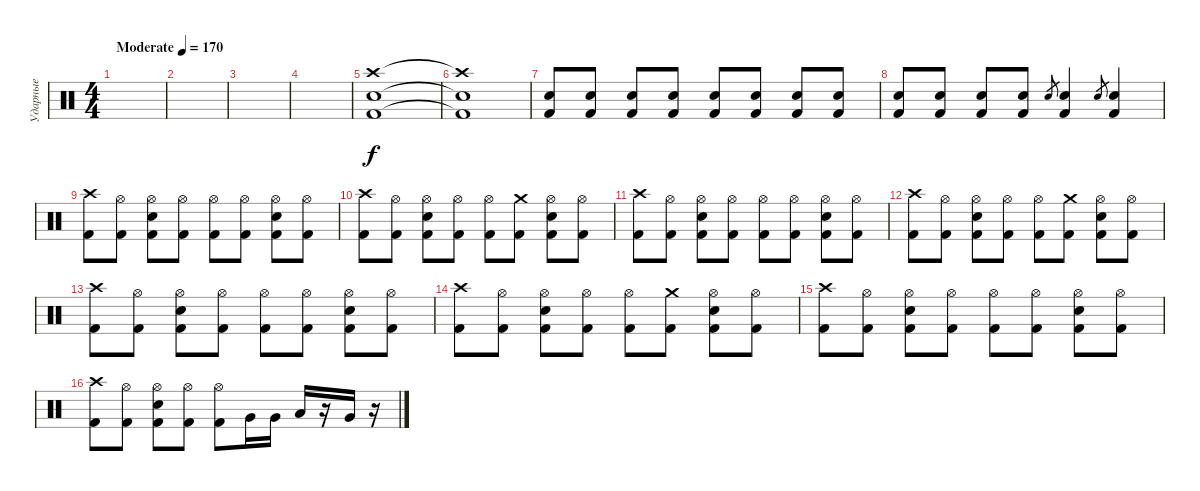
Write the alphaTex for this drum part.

\track ("Ударные" "Ударные") {instrument percussion}
\staff {score}
\articulation defaults
\ts (4 4)
\tempo (170 "Moderate")
\clef neutral
\ks c
|
|
|
|
("Crash high (hit)" "Kick (hit) 2" "Snare (hit) 2").1 |
("Crash high (hit)"{t} "Kick (hit) 2"{t} "Snare (hit) 2"{t}).1{volume 0} |
("Snare (hit) 2" "Kick (hit) 2").8{volume 16} ("Snare (hit) 2" "Kick (hit) 2").8 ("Snare (hit) 2" "Kick (hit) 2").8 ("Snare (hit) 2" "Kick (hit) 2").8 ("Snare (hit) 2" "Kick (hit) 2").8 ("Snare (hit) 2" "Kick (hit) 2").8 ("Snare (hit) 2" "Kick (hit) 2").8 ("Snare (hit) 2" "Kick (hit) 2").8 |
("Snare (hit) 2" "Kick (hit) 2").8 ("Snare (hit) 2" "Kick (hit) 2").8 ("Snare (hit) 2" "Kick (hit) 2").8 ("Snare (hit) 2" "Kick (hit) 2").8 "Snare (hit) 2".8{gr} ("Snare (hit) 2" "Kick (hit) 2").4 "Snare (hit) 2".8{gr} ("Snare (hit) 2" "Kick (hit) 2").4 |
("Crash high (hit)" "Kick (hit) 2").8 ("Hi-Hat (open)" "Kick (hit) 2").8 ("Hi-Hat (open)" "Snare (hit) 2" "Kick (hit) 2").8 ("Hi-Hat (open)" "Kick (hit) 2").8 ("Hi-Hat (open)" "Kick (hit) 2").8 ("Hi-Hat (open)" "Kick (hit) 2").8 ("Hi-Hat (open)" "Snare (hit) 2" "Kick (hit) 2").8 ("Hi-Hat (open)" "Kick (hit) 2").8 |
("Crash high (hit)" "Kick (hit) 2").8 ("Hi-Hat (open)" "Kick (hit) 2").8 ("Hi-Hat (open)" "Snare (hit) 2" "Kick (hit) 2").8 ("Hi-Hat (open)" "Kick (hit) 2").8 ("Hi-Hat (open)" "Kick (hit) 2").8 ("Crash medium (hit)" "Kick (hit) 2").8 ("Hi-Hat (open)" "Snare (hit) 2" "Kick (hit) 2").8 ("Hi-Hat (open)" "Kick (hit) 2").8 |
("Crash high (hit)" "Kick (hit) 2").8 ("Hi-Hat (open)" "Kick (hit) 2").8 ("Hi-Hat (open)" "Snare (hit) 2" "Kick (hit) 2").8 ("Hi-Hat (open)" "Kick (hit) 2").8 ("Hi-Hat (open)" "Kick (hit) 2").8 ("Hi-Hat (open)" "Kick (hit) 2").8 ("Hi-Hat (open)" "Snare (hit) 2" "Kick (hit) 2").8 ("Hi-Hat (open)" "Kick (hit) 2").8 |
("Crash high (hit)" "Kick (hit) 2").8 ("Hi-Hat (open)" "Kick (hit) 2").8 ("Hi-Hat (open)" "Snare (hit) 2" "Kick (hit) 2").8 ("Hi-Hat (open)" "Kick (hit) 2").8 ("Hi-Hat (open)" "Kick (hit) 2").8 ("Crash medium (hit)" "Kick (hit) 2").8 ("Hi-Hat (open)" "Snare (hit) 2" "Kick (hit) 2").8 ("Hi-Hat (open)" "Kick (hit) 2").8 |
("Crash high (hit)" "Kick (hit) 2").8 ("Hi-Hat (open)" "Kick (hit) 2").8 ("Hi-Hat (open)" "Snare (hit) 2" "Kick (hit) 2").8 ("Hi-Hat (open)" "Kick (hit) 2").8 ("Hi-Hat (open)" "Kick (hit) 2").8 ("Hi-Hat (open)" "Kick (hit) 2").8 ("Hi-Hat (open)" "Snare (hit) 2" "Kick (hit) 2").8 ("Hi-Hat (open)" "Kick (hit) 2").8 |
("Crash high (hit)" "Kick (hit) 2").8 ("Hi-Hat (open)" "Kick (hit) 2").8 ("Hi-Hat (open)" "Snare (hit) 2" "Kick (hit) 2").8 ("Hi-Hat (open)" "Kick (hit) 2").8 ("Hi-Hat (open)" "Kick (hit) 2").8 ("Crash medium (hit)" "Kick (hit) 2").8 ("Hi-Hat (open)" "Snare (hit) 2" "Kick (hit) 2").8 ("Hi-Hat (open)" "Kick (hit) 2").8 |
("Crash high (hit)" "Kick (hit) 2").8 ("Hi-Hat (open)" "Kick (hit) 2").8 ("Hi-Hat (open)" "Snare (hit) 2" "Kick (hit) 2").8 ("Hi-Hat (open)" "Kick (hit) 2").8 ("Hi-Hat (open)" "Kick (hit) 2").8 ("Hi-Hat (open)" "Kick (hit) 2").8 ("Hi-Hat (open)" "Snare (hit) 2" "Kick (hit) 2").8 ("Hi-Hat (open)" "Kick (hit) 2").8 |
("Crash high (hit)" "Kick (hit) 2").8 ("Hi-Hat (open)" "Kick (hit) 2").8 ("Hi-Hat (open)" "Snare (hit) 2" "Kick (hit) 2").8 ("Hi-Hat (open)" "Kick (hit) 2").8 ("Hi-Hat (open)" "Kick (hit) 2").8 "Very Low Tom (hit)".16 "Very Low Tom (hit)".16 "Low Tom (hit)".16 r.16 "Very Low Tom (hit)".16 r.16
